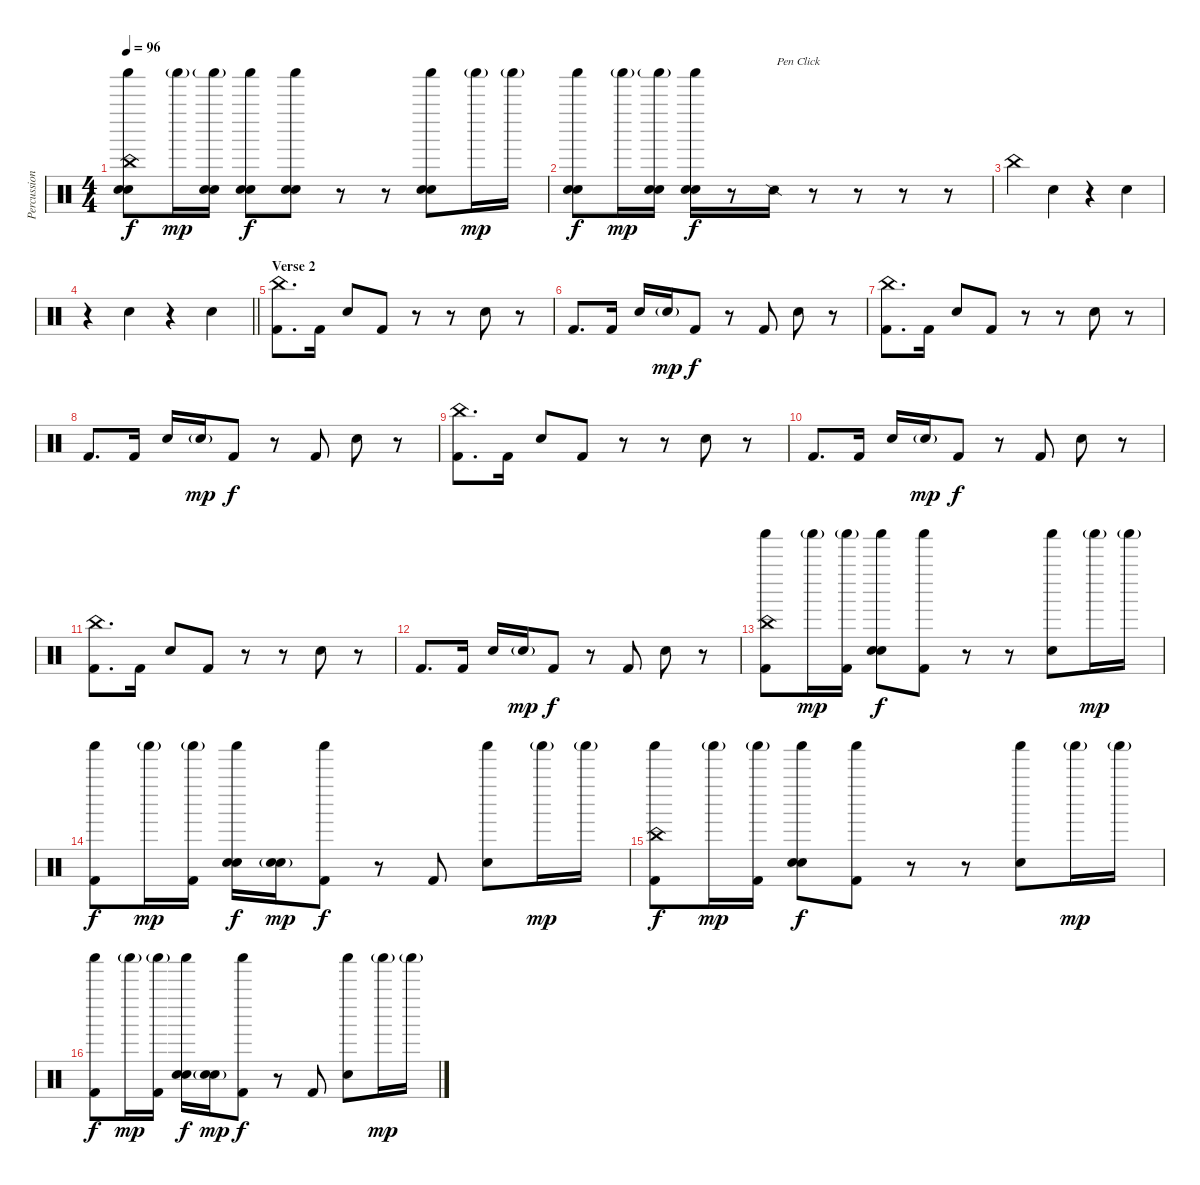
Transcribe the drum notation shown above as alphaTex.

\track ("Percussion" "Percussion") {instrument percussion}
\staff {score}
\articulation defaults
\ts (4 4)
\tempo 96
\clef neutral
\ks c
("China (hit)" "Shaker (hit)" "Snare (hit) 2" "Electric Snare (hit)").8{dy f} "Shaker (hit)"{g}.16{dy mp} ("Shaker (hit)"{g} "Snare (hit) 2" "Electric Snare (hit)").16 ("Shaker (hit)" "Hand Clap (hit)" "Electric Snare (hit)").8{dy f} ("Shaker (hit)" "Snare (hit) 2" "Electric Snare (hit)").8 r.8 r.8 ("Shaker (hit)" "Snare (hit) 2" "Electric Snare (hit)").8 "Shaker (hit)"{g}.16{dy mp} "Shaker (hit)"{g}.16 |
("Shaker (hit)" "Snare (hit) 2" "Electric Snare (hit)").8{dy f} "Shaker (hit)"{g}.16{dy mp} ("Shaker (hit)"{g} "Snare (hit) 2" "Electric Snare (hit)").16 ("Shaker (hit)" "Hand Clap (hit)" "Electric Snare (hit)").16{dy f} r.8 "Snare (side stick) 2".16{txt "Pen Click"} r.8 r.8 r.8 r.8 |
"China (hit)".4 "Electric Snare (hit)".4 r.4 "Electric Snare (hit)".4 |
\barLineRight lightlight
r.4 "Electric Snare (hit)".4 r.4 "Electric Snare (hit)".4 |
\section ("" "Verse 2")
("China (hit)" "Kick (hit) 2").8{d} "Kick (hit) 2".16 "Electric Snare (hit)".8 "Kick (hit) 2".8 r.8 r.8 "Electric Snare (hit)".8 r.8 |
"Kick (hit) 2".8{d} "Kick (hit) 2".16 "Electric Snare (hit)".16 "Electric Snare (hit)"{g}.16{dy mp} "Kick (hit) 2".8{dy f} r.8 "Kick (hit) 2".8 "Electric Snare (hit)".8 r.8 |
("China (hit)" "Kick (hit) 2").8{d} "Kick (hit) 2".16 "Electric Snare (hit)".8 "Kick (hit) 2".8 r.8 r.8 "Electric Snare (hit)".8 r.8 |
"Kick (hit) 2".8{d} "Kick (hit) 2".16 "Electric Snare (hit)".16 "Electric Snare (hit)"{g}.16{dy mp} "Kick (hit) 2".8{dy f} r.8 "Kick (hit) 2".8 "Electric Snare (hit)".8 r.8 |
("China (hit)" "Kick (hit) 2").8{d} "Kick (hit) 2".16 "Electric Snare (hit)".8 "Kick (hit) 2".8 r.8 r.8 "Electric Snare (hit)".8 r.8 |
"Kick (hit) 2".8{d} "Kick (hit) 2".16 "Electric Snare (hit)".16 "Electric Snare (hit)"{g}.16{dy mp} "Kick (hit) 2".8{dy f} r.8 "Kick (hit) 2".8 "Electric Snare (hit)".8 r.8 |
("China (hit)" "Kick (hit) 2").8{d} "Kick (hit) 2".16 "Electric Snare (hit)".8 "Kick (hit) 2".8 r.8 r.8 "Electric Snare (hit)".8 r.8 |
"Kick (hit) 2".8{d} "Kick (hit) 2".16 "Electric Snare (hit)".16 "Electric Snare (hit)"{g}.16{dy mp} "Kick (hit) 2".8{dy f} r.8 "Kick (hit) 2".8 "Electric Snare (hit)".8 r.8 |
("China (hit)" "Shaker (hit)" "Kick (hit) 2").8 "Shaker (hit)"{g}.16{dy mp} ("Shaker (hit)"{g} "Kick (hit) 2").16 ("Shaker (hit)" "Hand Clap (hit)" "Electric Snare (hit)").8{dy f} ("Shaker (hit)" "Kick (hit) 2").8 r.8 r.8 ("Shaker (hit)" "Electric Snare (hit)").8 "Shaker (hit)"{g}.16{dy mp} "Shaker (hit)"{g}.16 |
("Shaker (hit)" "Kick (hit) 2").8{dy f} "Shaker (hit)"{g}.16{dy mp} ("Shaker (hit)"{g} "Kick (hit) 2").16 ("Shaker (hit)" "Hand Clap (hit)" "Electric Snare (hit)").16{dy f} ("Hand Clap (hit)"{g} "Electric Snare (hit)"{g}).16{dy mp} ("Shaker (hit)" "Kick (hit) 2").8{dy f} r.8 "Kick (hit) 2".8 ("Shaker (hit)" "Electric Snare (hit)").8 "Shaker (hit)"{g}.16{dy mp} "Shaker (hit)"{g}.16 |
("China (hit)" "Shaker (hit)" "Kick (hit) 2").8{dy f} "Shaker (hit)"{g}.16{dy mp} ("Shaker (hit)"{g} "Kick (hit) 2").16 ("Shaker (hit)" "Hand Clap (hit)" "Electric Snare (hit)").8{dy f} ("Shaker (hit)" "Kick (hit) 2").8 r.8 r.8 ("Shaker (hit)" "Electric Snare (hit)").8 "Shaker (hit)"{g}.16{dy mp} "Shaker (hit)"{g}.16 |
("Shaker (hit)" "Kick (hit) 2").8{dy f} "Shaker (hit)"{g}.16{dy mp} ("Shaker (hit)"{g} "Kick (hit) 2").16 ("Shaker (hit)" "Hand Clap (hit)" "Electric Snare (hit)").16{dy f} ("Hand Clap (hit)"{g} "Electric Snare (hit)"{g}).16{dy mp} ("Shaker (hit)" "Kick (hit) 2").8{dy f} r.8 "Kick (hit) 2".8 ("Shaker (hit)" "Electric Snare (hit)").8 "Shaker (hit)"{g}.16{dy mp} "Shaker (hit)"{g}.16
